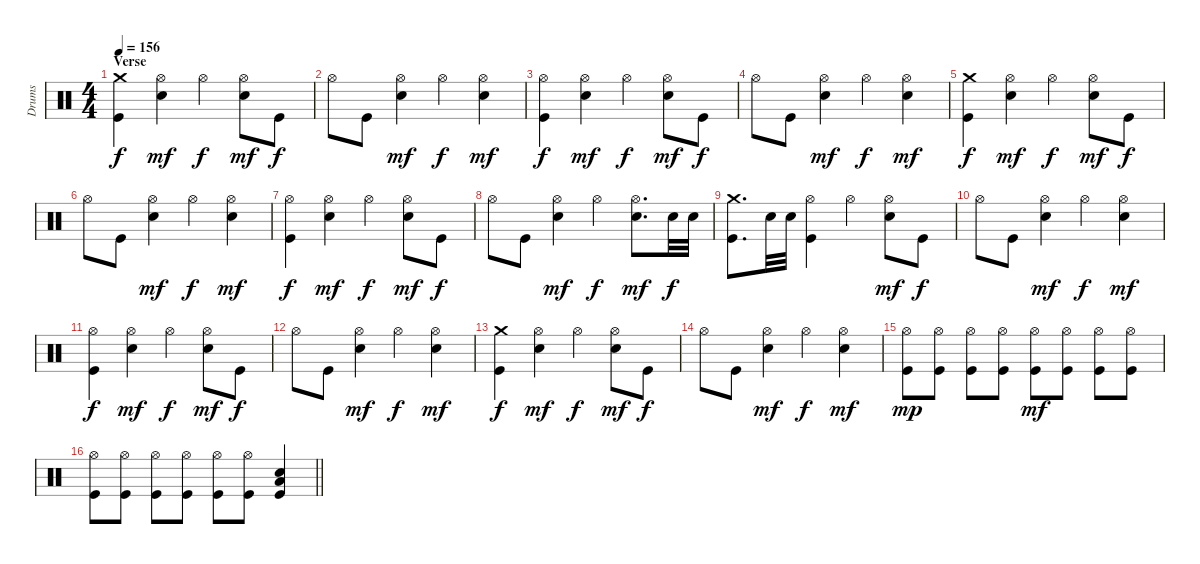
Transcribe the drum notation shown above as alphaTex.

\track ("Drums" "Drums") {instrument percussion}
\staff {score}
\articulation defaults
\ts (4 4)
\section ("" "Verse")
\tempo 156
\clef neutral
\ks c
("Crash medium (hit)" "Kick (hit)").4{dy f} ("Hi-Hat (open)" "Electric Snare (hit)").4{dy mf} "Hi-Hat (open)".4{dy f} ("Hi-Hat (open)" "Electric Snare (hit)").8{dy mf} "Kick (hit)".8{dy f} |
"Hi-Hat (open)".8 "Kick (hit)".8 ("Hi-Hat (open)" "Electric Snare (hit)").4{dy mf} "Hi-Hat (open)".4{dy f} ("Hi-Hat (open)" "Electric Snare (hit)").4{dy mf} |
("Hi-Hat (open)" "Kick (hit)").4{dy f} ("Hi-Hat (open)" "Electric Snare (hit)").4{dy mf} "Hi-Hat (open)".4{dy f} ("Hi-Hat (open)" "Electric Snare (hit)").8{dy mf} "Kick (hit)".8{dy f} |
"Hi-Hat (open)".8 "Kick (hit)".8 ("Hi-Hat (open)" "Electric Snare (hit)").4{dy mf} "Hi-Hat (open)".4{dy f} ("Hi-Hat (open)" "Electric Snare (hit)").4{dy mf} |
("Crash medium (hit)" "Kick (hit)").4{dy f} ("Hi-Hat (open)" "Electric Snare (hit)").4{dy mf} "Hi-Hat (open)".4{dy f} ("Hi-Hat (open)" "Electric Snare (hit)").8{dy mf} "Kick (hit)".8{dy f} |
"Hi-Hat (open)".8 "Kick (hit)".8 ("Hi-Hat (open)" "Electric Snare (hit)").4{dy mf} "Hi-Hat (open)".4{dy f} ("Hi-Hat (open)" "Electric Snare (hit)").4{dy mf} |
("Hi-Hat (open)" "Kick (hit)").4{dy f} ("Hi-Hat (open)" "Electric Snare (hit)").4{dy mf} "Hi-Hat (open)".4{dy f} ("Hi-Hat (open)" "Electric Snare (hit)").8{dy mf} "Kick (hit)".8{dy f} |
"Hi-Hat (open)".8 "Kick (hit)".8 ("Hi-Hat (open)" "Electric Snare (hit)").4{dy mf} "Hi-Hat (open)".4{dy f} ("Hi-Hat (open)" "Electric Snare (hit)").8{d dy mf} "Electric Snare (hit)".32{dy f} "Electric Snare (hit)".32 |
("Crash medium (hit)" "Kick (hit)").8{d} "Electric Snare (hit)".32 "Electric Snare (hit)".32 ("Hi-Hat (open)" "Kick (hit)").4 "Hi-Hat (open)".4 ("Hi-Hat (open)" "Electric Snare (hit)").8{dy mf} "Kick (hit)".8{dy f} |
"Hi-Hat (open)".8 "Kick (hit)".8 ("Hi-Hat (open)" "Electric Snare (hit)").4{dy mf} "Hi-Hat (open)".4{dy f} ("Hi-Hat (open)" "Electric Snare (hit)").4{dy mf} |
("Hi-Hat (open)" "Kick (hit)").4{dy f} ("Hi-Hat (open)" "Electric Snare (hit)").4{dy mf} "Hi-Hat (open)".4{dy f} ("Hi-Hat (open)" "Electric Snare (hit)").8{dy mf} "Kick (hit)".8{dy f} |
"Hi-Hat (open)".8 "Kick (hit)".8 ("Hi-Hat (open)" "Electric Snare (hit)").4{dy mf} "Hi-Hat (open)".4{dy f} ("Hi-Hat (open)" "Electric Snare (hit)").4{dy mf} |
("Crash medium (hit)" "Kick (hit)").4{dy f} ("Hi-Hat (open)" "Electric Snare (hit)").4{dy mf} "Hi-Hat (open)".4{dy f} ("Hi-Hat (open)" "Electric Snare (hit)").8{dy mf} "Kick (hit)".8{dy f} |
"Hi-Hat (open)".8 "Kick (hit)".8 ("Hi-Hat (open)" "Electric Snare (hit)").4{dy mf} "Hi-Hat (open)".4{dy f} ("Hi-Hat (open)" "Electric Snare (hit)").4{dy mf} |
("Hi-Hat (open)" "Kick (hit)").8{dy mp} ("Hi-Hat (open)" "Kick (hit)").8 ("Hi-Hat (open)" "Kick (hit)").8 ("Hi-Hat (open)" "Kick (hit)").8 ("Hi-Hat (open)" "Kick (hit)").8{dy mf} ("Hi-Hat (open)" "Kick (hit)").8 ("Hi-Hat (open)" "Kick (hit)").8 ("Hi-Hat (open)" "Kick (hit)").8 |
\barLineRight lightlight
("Hi-Hat (open)" "Kick (hit)").8 ("Hi-Hat (open)" "Kick (hit)").8 ("Hi-Hat (open)" "Kick (hit)").8 ("Hi-Hat (open)" "Kick (hit)").8 ("Hi-Hat (open)" "Kick (hit)").8 ("Hi-Hat (open)" "Kick (hit)").8 ("Electric Snare (hit)" "Low Floor Tom (hit)" "Kick (hit)").4
